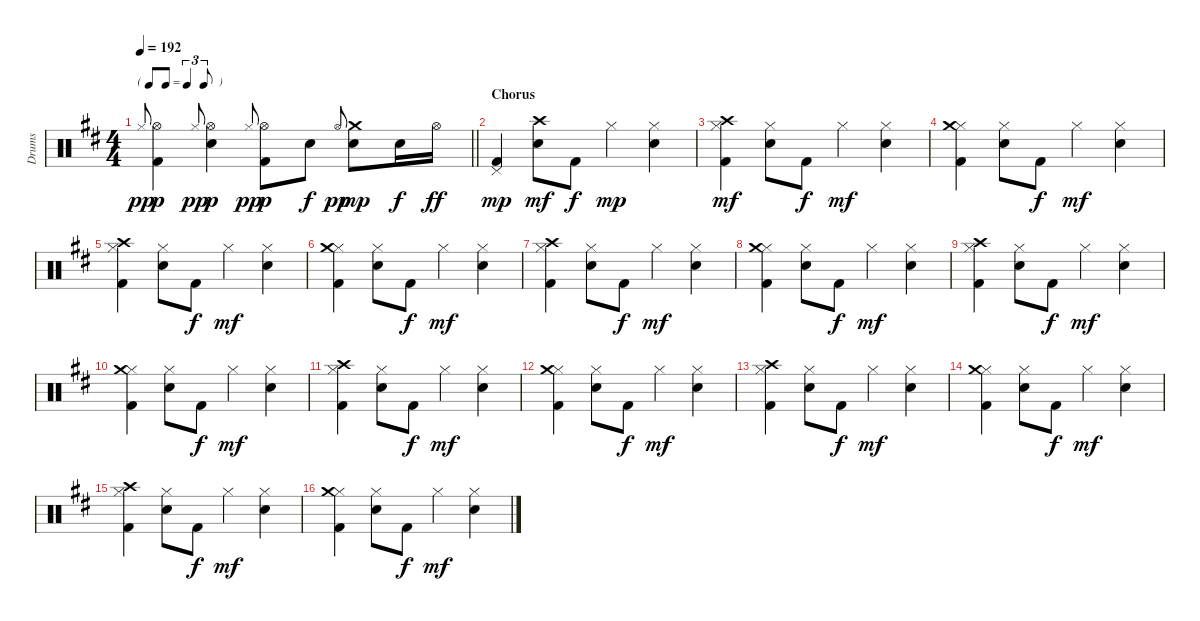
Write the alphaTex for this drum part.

\track ("Drums" "Drums") {instrument percussion}
\staff {score}
\articulation defaults
\ts (4 4)
\tf triplet8th
\tempo 192
\clef neutral
\barLineRight lightlight
\ks bminor "Hi-Hat (closed)".8{gr onbeat dy pp}
("Hi-Hat (open)" "Kick (hit) 2").4{dy p} "Hi-Hat (closed)".8{gr onbeat dy pp} ("Hi-Hat (open)" "Snare (hit) 2").4{dy p} "Hi-Hat (closed)".8{gr onbeat dy pp} ("Hi-Hat (open)" "Kick (hit) 2").8{dy p} "Snare (hit) 2".8{dy f} "Hi-Hat (open)".8{gr onbeat dy pp} ("Crash medium (hit)" "Snare (hit) 2").8{dy mp} "Snare (hit) 2".16{dy f} "Hi-Hat (open)".16{dy ff} |
\section ("" "Chorus")
("Pedal Hi-Hat (hit)" "Kick (hit) 2").4{dy mp} ("Crash high (hit)" "Snare (hit) 2").8{dy mf} "Kick (hit) 2".8{dy f} "Hi-Hat (closed)".4{dy mp} ("Hi-Hat (closed)" "Snare (hit) 2").4 |
("Hi-Hat (closed)" "Crash high (hit)" "Kick (hit) 2").4{dy mf} ("Hi-Hat (closed)" "Snare (hit) 2").8 "Kick (hit) 2".8{dy f} "Hi-Hat (closed)".4{dy mf} ("Hi-Hat (closed)" "Snare (hit) 2").4 |
("Hi-Hat (closed)" "Crash medium (hit)" "Kick (hit) 2").4 ("Hi-Hat (closed)" "Snare (hit) 2").8 "Kick (hit) 2".8{dy f} "Hi-Hat (closed)".4{dy mf} ("Hi-Hat (closed)" "Snare (hit) 2").4 |
("Hi-Hat (closed)" "Crash high (hit)" "Kick (hit) 2").4 ("Hi-Hat (closed)" "Snare (hit) 2").8 "Kick (hit) 2".8{dy f} "Hi-Hat (closed)".4{dy mf} ("Hi-Hat (closed)" "Snare (hit) 2").4 |
("Hi-Hat (closed)" "Crash medium (hit)" "Kick (hit) 2").4 ("Hi-Hat (closed)" "Snare (hit) 2").8 "Kick (hit) 2".8{dy f} "Hi-Hat (closed)".4{dy mf} ("Hi-Hat (closed)" "Snare (hit) 2").4 |
("Hi-Hat (closed)" "Crash high (hit)" "Kick (hit) 2").4 ("Hi-Hat (closed)" "Snare (hit) 2").8 "Kick (hit) 2".8{dy f} "Hi-Hat (closed)".4{dy mf} ("Hi-Hat (closed)" "Snare (hit) 2").4 |
("Hi-Hat (closed)" "Crash medium (hit)" "Kick (hit) 2").4 ("Hi-Hat (closed)" "Snare (hit) 2").8 "Kick (hit) 2".8{dy f} "Hi-Hat (closed)".4{dy mf} ("Hi-Hat (closed)" "Snare (hit) 2").4 |
("Hi-Hat (closed)" "Crash high (hit)" "Kick (hit) 2").4 ("Hi-Hat (closed)" "Snare (hit) 2").8 "Kick (hit) 2".8{dy f} "Hi-Hat (closed)".4{dy mf} ("Hi-Hat (closed)" "Snare (hit) 2").4 |
("Hi-Hat (closed)" "Crash medium (hit)" "Kick (hit) 2").4 ("Hi-Hat (closed)" "Snare (hit) 2").8 "Kick (hit) 2".8{dy f} "Hi-Hat (closed)".4{dy mf} ("Hi-Hat (closed)" "Snare (hit) 2").4 |
("Hi-Hat (closed)" "Crash high (hit)" "Kick (hit) 2").4 ("Hi-Hat (closed)" "Snare (hit) 2").8 "Kick (hit) 2".8{dy f} "Hi-Hat (closed)".4{dy mf} ("Hi-Hat (closed)" "Snare (hit) 2").4 |
("Hi-Hat (closed)" "Crash medium (hit)" "Kick (hit) 2").4 ("Hi-Hat (closed)" "Snare (hit) 2").8 "Kick (hit) 2".8{dy f} "Hi-Hat (closed)".4{dy mf} ("Hi-Hat (closed)" "Snare (hit) 2").4 |
("Hi-Hat (closed)" "Crash high (hit)" "Kick (hit) 2").4 ("Hi-Hat (closed)" "Snare (hit) 2").8 "Kick (hit) 2".8{dy f} "Hi-Hat (closed)".4{dy mf} ("Hi-Hat (closed)" "Snare (hit) 2").4 |
("Hi-Hat (closed)" "Crash medium (hit)" "Kick (hit) 2").4 ("Hi-Hat (closed)" "Snare (hit) 2").8 "Kick (hit) 2".8{dy f} "Hi-Hat (closed)".4{dy mf} ("Hi-Hat (closed)" "Snare (hit) 2").4 |
("Hi-Hat (closed)" "Crash high (hit)" "Kick (hit) 2").4 ("Hi-Hat (closed)" "Snare (hit) 2").8 "Kick (hit) 2".8{dy f} "Hi-Hat (closed)".4{dy mf} ("Hi-Hat (closed)" "Snare (hit) 2").4 |
("Hi-Hat (closed)" "Crash medium (hit)" "Kick (hit) 2").4 ("Hi-Hat (closed)" "Snare (hit) 2").8 "Kick (hit) 2".8{dy f} "Hi-Hat (closed)".4{dy mf} ("Hi-Hat (closed)" "Snare (hit) 2").4
